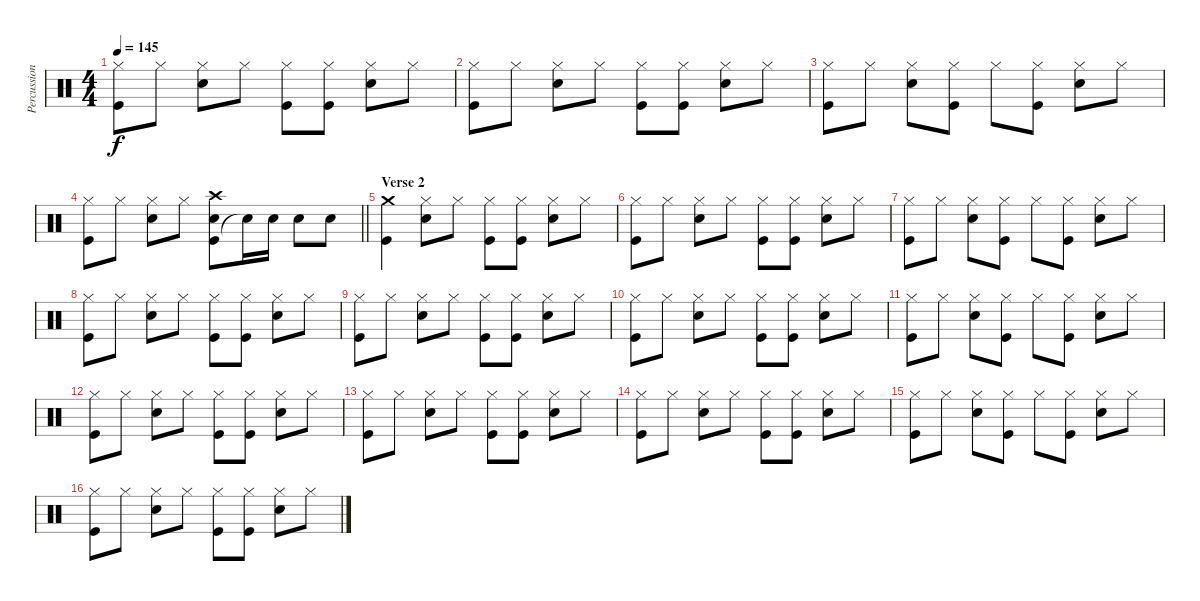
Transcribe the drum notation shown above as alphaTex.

\track ("Percussion" "Percussion") {instrument percussion}
\staff {score}
\articulation defaults
\ts (4 4)
\tempo 145
\clef neutral
\ks c
("Kick (hit)" "Hi-Hat (closed)").8{dy f} "Hi-Hat (closed)".8 ("Hi-Hat (closed)" "Snare (hit) 2").8 "Hi-Hat (closed)".8 ("Kick (hit)" "Hi-Hat (closed)").8 ("Kick (hit)" "Hi-Hat (closed)").8 ("Hi-Hat (closed)" "Snare (hit) 2").8 "Hi-Hat (closed)".8 |
("Kick (hit)" "Hi-Hat (closed)").8 "Hi-Hat (closed)".8 ("Hi-Hat (closed)" "Snare (hit) 2").8 "Hi-Hat (closed)".8 ("Kick (hit)" "Hi-Hat (closed)").8 ("Kick (hit)" "Hi-Hat (closed)").8 ("Hi-Hat (closed)" "Snare (hit) 2").8 "Hi-Hat (closed)".8 |
("Kick (hit)" "Hi-Hat (closed)").8 "Hi-Hat (closed)".8 ("Hi-Hat (closed)" "Snare (hit) 2").8 ("Kick (hit)" "Hi-Hat (closed)").8 "Hi-Hat (closed)".8 ("Kick (hit)" "Hi-Hat (closed)").8 ("Hi-Hat (closed)" "Snare (hit) 2").8 "Hi-Hat (closed)".8 |
\barLineRight lightlight
("Kick (hit)" "Hi-Hat (closed)").8 "Hi-Hat (closed)".8 ("Hi-Hat (closed)" "Snare (hit) 2").8 "Hi-Hat (closed)".8 ("Kick (hit)" "Crash high (hit)" "Snare (hit) 2").8 "Snare (hit)"{t}.16 "Snare (hit) 2".16 "Snare (hit) 2".8 "Snare (hit) 2".8 |
\section ("" "Verse 2")
("Kick (hit)" "Crash medium (hit)").4 ("Hi-Hat (closed)" "Snare (hit) 2").8 "Hi-Hat (closed)".8 ("Kick (hit)" "Hi-Hat (closed)").8 ("Kick (hit)" "Hi-Hat (closed)").8 ("Hi-Hat (closed)" "Snare (hit) 2").8 "Hi-Hat (closed)".8 |
("Kick (hit)" "Hi-Hat (closed)").8 "Hi-Hat (closed)".8 ("Hi-Hat (closed)" "Snare (hit) 2").8 "Hi-Hat (closed)".8 ("Kick (hit)" "Hi-Hat (closed)").8 ("Kick (hit)" "Hi-Hat (closed)").8 ("Hi-Hat (closed)" "Snare (hit) 2").8 "Hi-Hat (closed)".8 |
("Kick (hit)" "Hi-Hat (closed)").8 "Hi-Hat (closed)".8 ("Hi-Hat (closed)" "Snare (hit) 2").8 ("Kick (hit)" "Hi-Hat (closed)").8 "Hi-Hat (closed)".8 ("Kick (hit)" "Hi-Hat (closed)").8 ("Hi-Hat (closed)" "Snare (hit) 2").8 "Hi-Hat (closed)".8 |
("Kick (hit)" "Hi-Hat (closed)").8 "Hi-Hat (closed)".8 ("Hi-Hat (closed)" "Snare (hit) 2").8 "Hi-Hat (closed)".8 ("Kick (hit)" "Hi-Hat (closed)").8 ("Kick (hit)" "Hi-Hat (closed)").8 ("Hi-Hat (closed)" "Snare (hit) 2").8 "Hi-Hat (closed)".8 |
("Kick (hit)" "Hi-Hat (closed)").8 "Hi-Hat (closed)".8 ("Hi-Hat (closed)" "Snare (hit) 2").8 "Hi-Hat (closed)".8 ("Kick (hit)" "Hi-Hat (closed)").8 ("Kick (hit)" "Hi-Hat (closed)").8 ("Hi-Hat (closed)" "Snare (hit) 2").8 "Hi-Hat (closed)".8 |
("Kick (hit)" "Hi-Hat (closed)").8 "Hi-Hat (closed)".8 ("Hi-Hat (closed)" "Snare (hit) 2").8 "Hi-Hat (closed)".8 ("Kick (hit)" "Hi-Hat (closed)").8 ("Kick (hit)" "Hi-Hat (closed)").8 ("Hi-Hat (closed)" "Snare (hit) 2").8 "Hi-Hat (closed)".8 |
("Kick (hit)" "Hi-Hat (closed)").8 "Hi-Hat (closed)".8 ("Hi-Hat (closed)" "Snare (hit) 2").8 ("Kick (hit)" "Hi-Hat (closed)").8 "Hi-Hat (closed)".8 ("Kick (hit)" "Hi-Hat (closed)").8 ("Hi-Hat (closed)" "Snare (hit) 2").8 "Hi-Hat (closed)".8 |
("Kick (hit)" "Hi-Hat (closed)").8 "Hi-Hat (closed)".8 ("Hi-Hat (closed)" "Snare (hit) 2").8 "Hi-Hat (closed)".8 ("Kick (hit)" "Hi-Hat (closed)").8 ("Kick (hit)" "Hi-Hat (closed)").8 ("Hi-Hat (closed)" "Snare (hit) 2").8 "Hi-Hat (closed)".8 |
("Kick (hit)" "Hi-Hat (closed)").8 "Hi-Hat (closed)".8 ("Hi-Hat (closed)" "Snare (hit) 2").8 "Hi-Hat (closed)".8 ("Kick (hit)" "Hi-Hat (closed)").8 ("Kick (hit)" "Hi-Hat (closed)").8 ("Hi-Hat (closed)" "Snare (hit) 2").8 "Hi-Hat (closed)".8 |
("Kick (hit)" "Hi-Hat (closed)").8 "Hi-Hat (closed)".8 ("Hi-Hat (closed)" "Snare (hit) 2").8 "Hi-Hat (closed)".8 ("Kick (hit)" "Hi-Hat (closed)").8 ("Kick (hit)" "Hi-Hat (closed)").8 ("Hi-Hat (closed)" "Snare (hit) 2").8 "Hi-Hat (closed)".8 |
("Kick (hit)" "Hi-Hat (closed)").8 "Hi-Hat (closed)".8 ("Hi-Hat (closed)" "Snare (hit) 2").8 ("Kick (hit)" "Hi-Hat (closed)").8 "Hi-Hat (closed)".8 ("Kick (hit)" "Hi-Hat (closed)").8 ("Hi-Hat (closed)" "Snare (hit) 2").8 "Hi-Hat (closed)".8 |
("Kick (hit)" "Hi-Hat (closed)").8 "Hi-Hat (closed)".8 ("Hi-Hat (closed)" "Snare (hit) 2").8 "Hi-Hat (closed)".8 ("Kick (hit)" "Hi-Hat (closed)").8 ("Kick (hit)" "Hi-Hat (closed)").8 ("Hi-Hat (closed)" "Snare (hit) 2").8 "Hi-Hat (closed)".8
